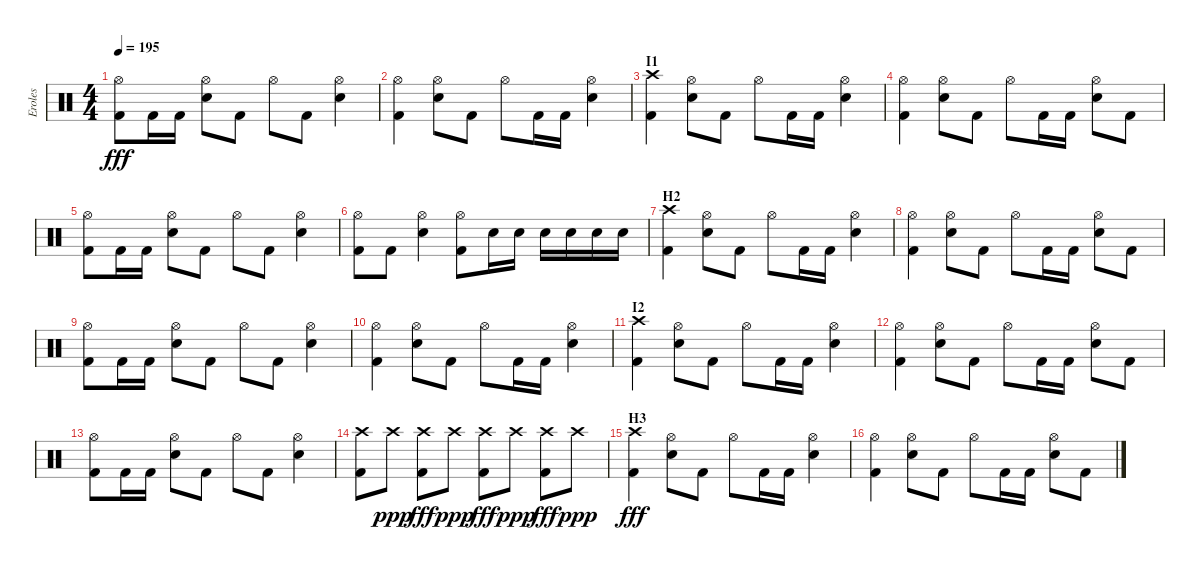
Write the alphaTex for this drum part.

\track ("Eroles" "Eroles") {instrument percussion}
\staff {score}
\articulation defaults
\ts (4 4)
\tempo 195
\clef neutral
\ks c
("Hi-Hat (open)" "Kick (hit) 2").8{dy fff} "Kick (hit) 2".16 "Kick (hit) 2".16 ("Hi-Hat (open)" "Snare (hit) 2").8 "Kick (hit) 2".8 "Hi-Hat (open)".8 "Kick (hit) 2".8 ("Hi-Hat (open)" "Snare (hit) 2").4 |
("Hi-Hat (open)" "Kick (hit) 2").4 ("Hi-Hat (open)" "Snare (hit) 2").8 "Kick (hit) 2".8 "Hi-Hat (open)".8 "Kick (hit) 2".16 "Kick (hit) 2".16 ("Hi-Hat (open)" "Snare (hit) 2").4 |
\section ("" "I1")
("Crash high (hit)" "Kick (hit) 2").4 ("Hi-Hat (open)" "Snare (hit) 2").8 "Kick (hit) 2".8 "Hi-Hat (open)".8 "Kick (hit) 2".16 "Kick (hit) 2".16 ("Hi-Hat (open)" "Snare (hit) 2").4 |
("Hi-Hat (open)" "Kick (hit) 2").4 ("Hi-Hat (open)" "Snare (hit) 2").8 "Kick (hit) 2".8 "Hi-Hat (open)".8 "Kick (hit) 2".16 "Kick (hit) 2".16 ("Hi-Hat (open)" "Snare (hit) 2").8 "Kick (hit) 2".8 |
("Hi-Hat (open)" "Kick (hit) 2").8 "Kick (hit) 2".16 "Kick (hit) 2".16 ("Hi-Hat (open)" "Snare (hit) 2").8 "Kick (hit) 2".8 "Hi-Hat (open)".8 "Kick (hit) 2".8 ("Hi-Hat (open)" "Snare (hit) 2").4 |
("Hi-Hat (open)" "Kick (hit) 2").8 "Kick (hit) 2".8 ("Hi-Hat (open)" "Snare (hit) 2").4 ("Hi-Hat (open)" "Kick (hit) 2").8 "Snare (hit) 2".16 "Snare (hit) 2".16 "Snare (hit) 2".16 "Snare (hit) 2".16 "Snare (hit) 2".16 "Snare (hit) 2".16 |
\section ("" "H2")
("Crash high (hit)" "Kick (hit) 2").4 ("Hi-Hat (open)" "Snare (hit) 2").8 "Kick (hit) 2".8 "Hi-Hat (open)".8 "Kick (hit) 2".16 "Kick (hit) 2".16 ("Hi-Hat (open)" "Snare (hit) 2").4 |
("Hi-Hat (open)" "Kick (hit) 2").4 ("Hi-Hat (open)" "Snare (hit) 2").8 "Kick (hit) 2".8 "Hi-Hat (open)".8 "Kick (hit) 2".16 "Kick (hit) 2".16 ("Hi-Hat (open)" "Snare (hit) 2").8 "Kick (hit) 2".8 |
("Hi-Hat (open)" "Kick (hit) 2").8 "Kick (hit) 2".16 "Kick (hit) 2".16 ("Hi-Hat (open)" "Snare (hit) 2").8 "Kick (hit) 2".8 "Hi-Hat (open)".8 "Kick (hit) 2".8 ("Hi-Hat (open)" "Snare (hit) 2").4 |
("Hi-Hat (open)" "Kick (hit) 2").4 ("Hi-Hat (open)" "Snare (hit) 2").8 "Kick (hit) 2".8 "Hi-Hat (open)".8 "Kick (hit) 2".16 "Kick (hit) 2".16 ("Hi-Hat (open)" "Snare (hit) 2").4 |
\section ("" "I2")
("Crash high (hit)" "Kick (hit) 2").4 ("Hi-Hat (open)" "Snare (hit) 2").8 "Kick (hit) 2".8 "Hi-Hat (open)".8 "Kick (hit) 2".16 "Kick (hit) 2".16 ("Hi-Hat (open)" "Snare (hit) 2").4 |
("Hi-Hat (open)" "Kick (hit) 2").4 ("Hi-Hat (open)" "Snare (hit) 2").8 "Kick (hit) 2".8 "Hi-Hat (open)".8 "Kick (hit) 2".16 "Kick (hit) 2".16 ("Hi-Hat (open)" "Snare (hit) 2").8 "Kick (hit) 2".8 |
("Hi-Hat (open)" "Kick (hit) 2").8 "Kick (hit) 2".16 "Kick (hit) 2".16 ("Hi-Hat (open)" "Snare (hit) 2").8 "Kick (hit) 2".8 "Hi-Hat (open)".8 "Kick (hit) 2".8 ("Hi-Hat (open)" "Snare (hit) 2").4 |
("Crash high (hit)" "Kick (hit) 2").8 "Crash high (hit)".8{dy ppp} ("Crash high (hit)" "Kick (hit) 2").8{dy fff} "Crash high (hit)".8{dy ppp} ("Crash high (hit)" "Kick (hit) 2").8{dy fff} "Crash high (hit)".8{dy ppp} ("Crash high (hit)" "Kick (hit) 2").8{dy fff} "Crash high (hit)".8{dy ppp} |
\section ("" "H3")
("Crash high (hit)" "Kick (hit) 2").4{dy fff} ("Hi-Hat (open)" "Snare (hit) 2").8 "Kick (hit) 2".8 "Hi-Hat (open)".8 "Kick (hit) 2".16 "Kick (hit) 2".16 ("Hi-Hat (open)" "Snare (hit) 2").4 |
("Hi-Hat (open)" "Kick (hit) 2").4 ("Hi-Hat (open)" "Snare (hit) 2").8 "Kick (hit) 2".8 "Hi-Hat (open)".8 "Kick (hit) 2".16 "Kick (hit) 2".16 ("Hi-Hat (open)" "Snare (hit) 2").8 "Kick (hit) 2".8
